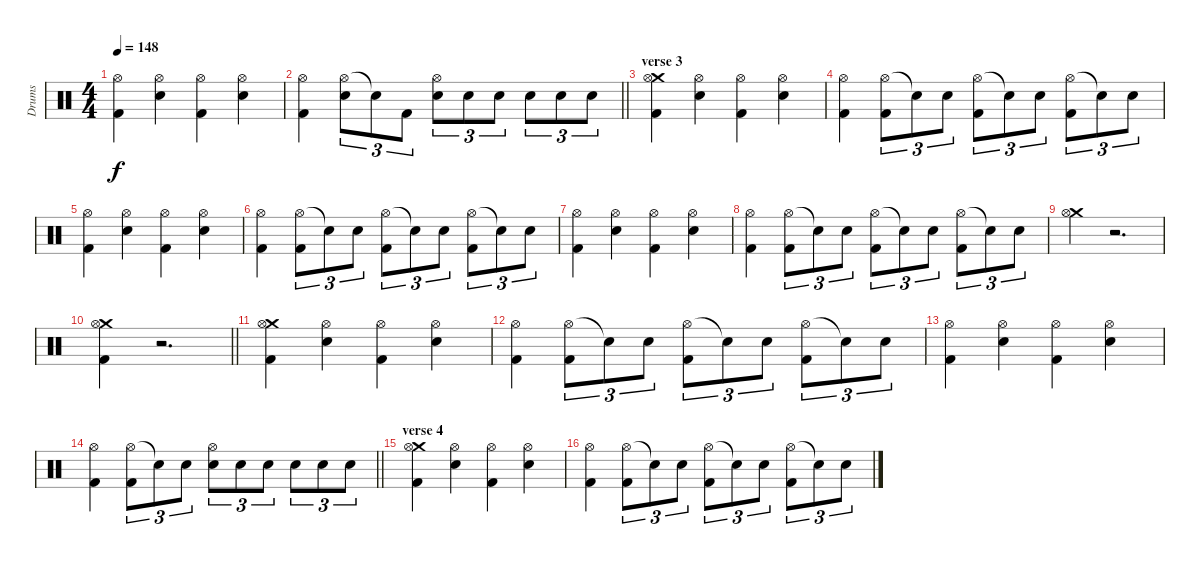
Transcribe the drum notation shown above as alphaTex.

\track ("Drums" "Drums") {instrument percussion}
\staff {score}
\articulation defaults
\ts (4 4)
\tempo 148
\clef neutral
\ks c
("Hi-Hat (open)" "Kick (hit) 2").4{dy f} ("Hi-Hat (open)" "Snare (hit) 2").4 ("Hi-Hat (open)" "Kick (hit) 2").4 ("Hi-Hat (open)" "Snare (hit) 2").4 |
\barLineRight lightlight
("Hi-Hat (open)" "Kick (hit) 2").4 ("Hi-Hat (open)" "Snare (hit) 2").8{tu (3 2)} "Snare (hit)"{t}.8{tu (3 2)} "Kick (hit) 2".8{tu (3 2)} ("Hi-Hat (open)" "Snare (hit) 2").8{tu (3 2)} "Snare (hit) 2".8{tu (3 2)} "Snare (hit) 2".8{tu (3 2)} "Snare (hit) 2".8{tu (3 2)} "Snare (hit) 2".8{tu (3 2)} "Snare (hit) 2".8{tu (3 2)} |
\section ("" "verse 3")
("Crash medium (hit)" "Hi-Hat (open)" "Kick (hit) 2").4 ("Hi-Hat (open)" "Snare (hit) 2").4 ("Hi-Hat (open)" "Kick (hit) 2").4 ("Hi-Hat (open)" "Snare (hit) 2").4 |
("Hi-Hat (open)" "Kick (hit) 2").4 ("Hi-Hat (open)" "Kick (hit) 2").8{tu (3 2)} "Snare (hit)"{t}.8{tu (3 2)} "Snare (hit) 2".8{tu (3 2)} ("Hi-Hat (open)" "Kick (hit) 2").8{tu (3 2)} "Snare (hit)"{t}.8{tu (3 2)} "Snare (hit) 2".8{tu (3 2)} ("Hi-Hat (open)" "Kick (hit) 2").8{tu (3 2)} "Snare (hit) 2"{t}.8{tu (3 2)} "Snare (hit) 2".8{tu (3 2)} |
("Hi-Hat (open)" "Kick (hit) 2").4 ("Hi-Hat (open)" "Snare (hit) 2").4 ("Hi-Hat (open)" "Kick (hit) 2").4 ("Hi-Hat (open)" "Snare (hit) 2").4 |
("Hi-Hat (open)" "Kick (hit) 2").4 ("Hi-Hat (open)" "Kick (hit) 2").8{tu (3 2)} "Snare (hit)"{t}.8{tu (3 2)} "Snare (hit) 2".8{tu (3 2)} ("Hi-Hat (open)" "Kick (hit) 2").8{tu (3 2)} "Snare (hit)"{t}.8{tu (3 2)} "Snare (hit) 2".8{tu (3 2)} ("Hi-Hat (open)" "Kick (hit) 2").8{tu (3 2)} "Snare (hit) 2"{t}.8{tu (3 2)} "Snare (hit) 2".8{tu (3 2)} |
("Hi-Hat (open)" "Kick (hit) 2").4 ("Hi-Hat (open)" "Snare (hit) 2").4 ("Hi-Hat (open)" "Kick (hit) 2").4 ("Hi-Hat (open)" "Snare (hit) 2").4 |
("Hi-Hat (open)" "Kick (hit) 2").4 ("Hi-Hat (open)" "Kick (hit) 2").8{tu (3 2)} "Snare (hit)"{t}.8{tu (3 2)} "Snare (hit) 2".8{tu (3 2)} ("Hi-Hat (open)" "Kick (hit) 2").8{tu (3 2)} "Snare (hit)"{t}.8{tu (3 2)} "Snare (hit) 2".8{tu (3 2)} ("Hi-Hat (open)" "Kick (hit) 2").8{tu (3 2)} "Snare (hit) 2"{t}.8{tu (3 2)} "Snare (hit) 2".8{tu (3 2)} |
("Crash medium (hit)" "Hi-Hat (open)").4 r.2{d} |
\barLineRight lightlight
("Crash medium (hit)" "Hi-Hat (open)" "Kick (hit) 2").4 r.2{d} |
("Crash medium (hit)" "Hi-Hat (open)" "Kick (hit) 2").4 ("Hi-Hat (open)" "Snare (hit) 2").4 ("Hi-Hat (open)" "Kick (hit) 2").4 ("Hi-Hat (open)" "Snare (hit) 2").4 |
("Hi-Hat (open)" "Kick (hit) 2").4 ("Hi-Hat (open)" "Kick (hit) 2").8{tu (3 2)} "Snare (hit)"{t}.8{tu (3 2)} "Snare (hit) 2".8{tu (3 2)} ("Hi-Hat (open)" "Kick (hit) 2").8{tu (3 2)} "Snare (hit)"{t}.8{tu (3 2)} "Snare (hit) 2".8{tu (3 2)} ("Hi-Hat (open)" "Kick (hit) 2").8{tu (3 2)} "Snare (hit) 2"{t}.8{tu (3 2)} "Snare (hit) 2".8{tu (3 2)} |
("Hi-Hat (open)" "Kick (hit) 2").4 ("Hi-Hat (open)" "Snare (hit) 2").4 ("Hi-Hat (open)" "Kick (hit) 2").4 ("Hi-Hat (open)" "Snare (hit) 2").4 |
\barLineRight lightlight
("Hi-Hat (open)" "Kick (hit) 2").4 ("Hi-Hat (open)" "Kick (hit) 2").8{tu (3 2)} "Snare (hit)"{t}.8{tu (3 2)} "Snare (hit) 2".8{tu (3 2)} ("Hi-Hat (open)" "Snare (hit) 2").8{tu (3 2)} "Snare (hit) 2".8{tu (3 2)} "Snare (hit) 2".8{tu (3 2)} "Snare (hit) 2".8{tu (3 2)} "Snare (hit) 2".8{tu (3 2)} "Snare (hit) 2".8{tu (3 2)} |
\section ("" "verse 4")
("Crash medium (hit)" "Hi-Hat (open)" "Kick (hit) 2").4 ("Hi-Hat (open)" "Snare (hit) 2").4 ("Hi-Hat (open)" "Kick (hit) 2").4 ("Hi-Hat (open)" "Snare (hit) 2").4 |
("Hi-Hat (open)" "Kick (hit) 2").4 ("Hi-Hat (open)" "Kick (hit) 2").8{tu (3 2)} "Snare (hit)"{t}.8{tu (3 2)} "Snare (hit) 2".8{tu (3 2)} ("Hi-Hat (open)" "Kick (hit) 2").8{tu (3 2)} "Snare (hit)"{t}.8{tu (3 2)} "Snare (hit) 2".8{tu (3 2)} ("Hi-Hat (open)" "Kick (hit) 2").8{tu (3 2)} "Snare (hit) 2"{t}.8{tu (3 2)} "Snare (hit) 2".8{tu (3 2)}
